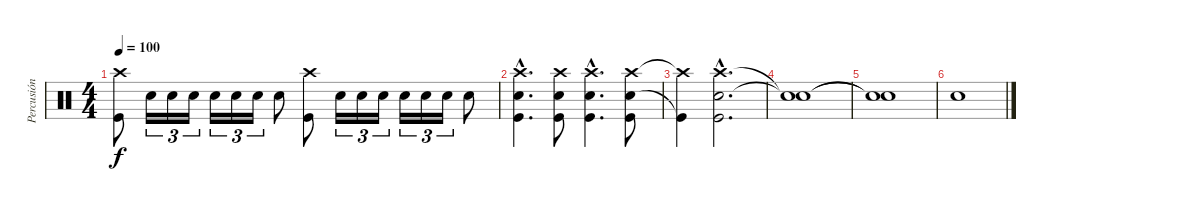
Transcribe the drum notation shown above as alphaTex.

\track ("Percusión" "Percusión") {instrument percussion}
\staff {score}
\articulation defaults
\ts (4 4)
\tempo 100
\clef neutral
\ks c
("Crash high (hit)" "Kick (hit)").8{dy f} "Electric Snare (hit)".16{tu (3 2)} "Electric Snare (hit)".16{tu (3 2)} "Electric Snare (hit)".16{tu (3 2)} "Electric Snare (hit)".16{tu (3 2)} "Electric Snare (hit)".16{tu (3 2)} "Electric Snare (hit)".16{tu (3 2)} "Electric Snare (hit)".8 ("Crash high (hit)" "Kick (hit)").8 "Electric Snare (hit)".16{tu (3 2)} "Electric Snare (hit)".16{tu (3 2)} "Electric Snare (hit)".16{tu (3 2)} "Electric Snare (hit)".16{tu (3 2)} "Electric Snare (hit)".16{tu (3 2)} "Electric Snare (hit)".16{tu (3 2)} "Electric Snare (hit)".8 |
("Crash high (hit)"{hac} "Electric Snare (hit)"{hac} "Kick (hit)"{hac}).4{d} ("Crash high (hit)" "Electric Snare (hit)" "Kick (hit)").8 ("Crash high (hit)"{hac} "Electric Snare (hit)"{hac} "Kick (hit)"{hac}).4{d} ("Crash high (hit)" "Electric Snare (hit)" "Kick (hit)").8 |
("Crash high (hit)"{t} "Kick (hit)"{t}).4 ("Crash high (hit)"{hac} "Electric Snare (hit)"{hac} "Kick (hit)"{hac}).2{d} |
("Snare (hit)"{t} "Snare (hit)"{t}).1 |
("Snare (hit)"{t} "Snare (hit)"{t}).1 |
"Electric Snare (hit)".1
